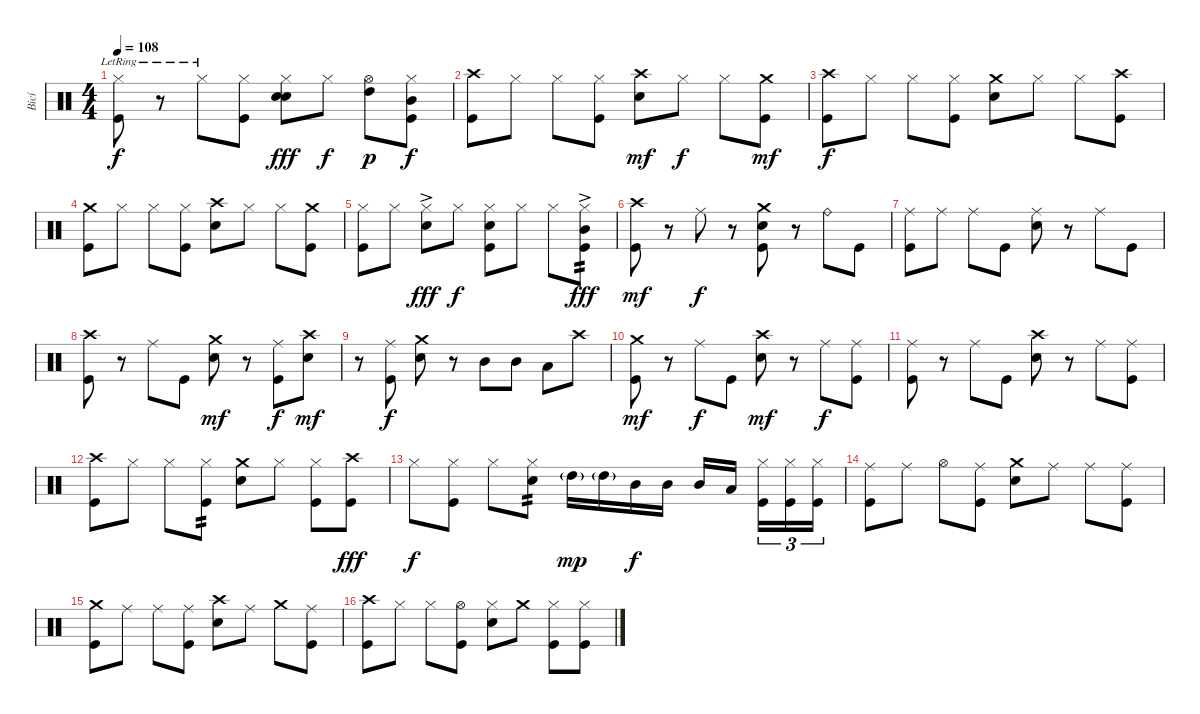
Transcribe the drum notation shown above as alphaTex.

\track ("Bicí" "Bicí") {instrument percussion}
\staff {score}
\articulation defaults
\ts (4 4)
\tempo 108
\clef neutral
\ks c
("Hi-Hat (closed)"{lr} "Kick (hit)").8{dy f} r.8 "Hi-Hat (closed)"{lr}.8 ("Hi-Hat (closed)" "Kick (hit)").8 ("Hi-Hat (closed)" "Snare (hit) 2" "Snare (hit) 2").8{dy fff} "Hi-Hat (closed)".8{dy f} ("Hi-Hat (open)" "High Tom (hit)").8{dy p} ("Hi-Hat (closed)" "Mid Tom (hit)" "Kick (hit)").8{dy f} |
("Crash high (hit)" "Kick (hit)").8 "Hi-Hat (closed)".8 "Hi-Hat (closed)".8 ("Hi-Hat (closed)" "Kick (hit)").8 ("Crash high (hit)" "Snare (hit) 2").8{dy mf} "Hi-Hat (closed)".8{dy f} "Hi-Hat (closed)".8 ("Crash medium (hit)" "Kick (hit)").8{dy mf} |
("Crash high (hit)" "Kick (hit)").8{dy f} "Hi-Hat (closed)".8 "Hi-Hat (closed)".8 ("Hi-Hat (closed)" "Kick (hit)").8 ("Crash medium (hit)" "Snare (hit) 2").8 "Hi-Hat (closed)".8 "Hi-Hat (closed)".8 ("Crash high (hit)" "Kick (hit)").8 |
("Crash medium (hit)" "Kick (hit)").8 "Hi-Hat (closed)".8 "Hi-Hat (closed)".8 ("Hi-Hat (closed)" "Kick (hit)").8 ("Crash high (hit)" "Snare (hit) 2").8 "Hi-Hat (closed)".8 "Hi-Hat (closed)".8 ("Crash medium (hit)" "Kick (hit)").8 |
("Hi-Hat (closed)" "Kick (hit)").8 "Hi-Hat (closed)".8 ("Hi-Hat (closed)" "Snare (hit) 2"{ac}).8{dy fff} "Hi-Hat (closed)".8{dy f} ("Hi-Hat (closed)" "Snare (hit) 2" "Kick (hit)").8 "Hi-Hat (closed)".8 "Hi-Hat (closed)".8 ("Hi-Hat (closed)" "Mid Tom (hit)"{ac} "Kick (hit)").8{tp 2 dy fff} |
("Crash high (hit)" "Kick (hit)").8{dy mf} r.8 "Ride (middle)".8{dy f} r.8 ("Crash medium (hit)" "Snare (hit) 2" "Kick (hit)").8 r.8 "Ride (bell)".8 "Kick (hit)".8 |
("Ride (middle)" "Kick (hit)").8 "Ride (middle)".8 "Ride (middle)".8 "Kick (hit)".8 ("Ride (middle)" "Snare (hit) 2").8 r.8 "Ride (middle)".8 "Kick (hit)".8 |
("Crash high (hit)" "Kick (hit)").8 r.8 "Ride (middle)".8 "Kick (hit)".8 ("Crash medium (hit)" "Snare (hit) 2").8{dy mf} r.8 ("Ride (middle)" "Kick (hit)").8{dy f} ("Crash high (hit)" "Snare (hit) 2").8{dy mf} |
r.8 ("Ride (middle)" "Kick (hit)").8{dy f} ("Crash medium (hit)" "Snare (hit) 2").8 r.8 "Mid Tom (hit)".8 "Mid Tom (hit)".8 "Low Tom (hit)".8 "Crash high (hit)".8 |
("Crash medium (hit)" "Kick (hit)").8{dy mf} r.8 "Ride (middle)".8{dy f} "Kick (hit)".8 ("Crash high (hit)" "Snare (hit) 2").8{dy mf} r.8 "Ride (middle)".8{dy f} ("Ride (middle)" "Kick (hit)").8 |
("Ride (middle)" "Kick (hit)").8 r.8 "Ride (middle)".8 "Kick (hit)".8 ("Crash high (hit)" "Snare (hit) 2").8 r.8 "Ride (middle)".8 ("Ride (middle)" "Kick (hit)").8 |
("Crash high (hit)" "Kick (hit)").8 "Hi-Hat (closed)".8 "Hi-Hat (closed)".8 ("Hi-Hat (closed)" "Kick (hit)").8{tp 2} ("Crash medium (hit)" "Snare (hit) 2").8 "Hi-Hat (closed)".8 ("Hi-Hat (closed)" "Kick (hit)").8 ("Crash high (hit)" "Kick (hit)").8{dy fff} |
"Hi-Hat (closed)".8{dy f} ("Hi-Hat (closed)" "Kick (hit)").8 "Hi-Hat (closed)".8 ("Hi-Hat (closed)" "Snare (hit) 2").8{tp 2} "High Tom (hit)"{g}.16{dy mp} "High Tom (hit)"{g}.16 "Mid Tom (hit)".16{dy f} "Mid Tom (hit)".16 "Mid Tom (hit)".16 "Low Tom (hit)".16 ("Hi-Hat (closed)" "Kick (hit)").16{tu (3 2)} ("Hi-Hat (closed)" "Kick (hit)").16{tu (3 2)} ("Hi-Hat (closed)" "Kick (hit)").16{tu (3 2)} |
("Ride (middle)" "Kick (hit)").8 "Ride (middle)".8 "Hi-Hat (open)".8 ("Ride (middle)" "Kick (hit)").8 ("Crash medium (hit)" "Snare (hit) 2").8 "Ride (middle)".8 "Ride (middle)".8 ("Ride (middle)" "Kick (hit)").8 |
("Crash medium (hit)" "Kick (hit)").8 "Ride (middle)".8 "Ride (middle)".8 ("Ride (middle)" "Kick (hit)").8 ("Crash high (hit)" "Snare (hit) 2").8 "Ride (middle)".8 "Crash medium (hit)".8 ("Ride (middle)" "Kick (hit)").8 |
("Crash high (hit)" "Kick (hit)").8 "Hi-Hat (closed)".8 "Hi-Hat (closed)".8 ("Hi-Hat (open)" "Kick (hit)").8 ("Hi-Hat (closed)" "Snare (hit) 2").8 "Crash medium (hit)".8 ("Hi-Hat (closed)" "Kick (hit)").8 ("Hi-Hat (closed)" "Kick (hit)").8
